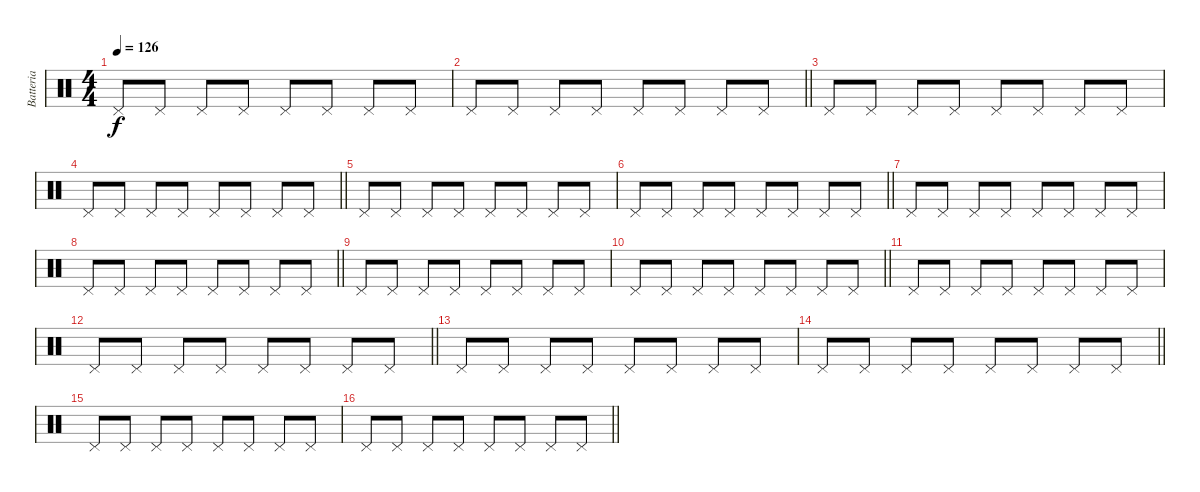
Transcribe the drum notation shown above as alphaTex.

\track ("Batteria" "Batteria") {instrument percussion}
\staff {score}
\articulation defaults
\ts (4 4)
\tempo 126
\clef neutral
\ks c "Pedal Hi-Hat (hit)".8{dy f} "Pedal Hi-Hat (hit)".8 "Pedal Hi-Hat (hit)".8 "Pedal Hi-Hat (hit)".8 "Pedal Hi-Hat (hit)".8 "Pedal Hi-Hat (hit)".8 "Pedal Hi-Hat (hit)".8 "Pedal Hi-Hat (hit)".8
|
\barLineRight lightlight "Pedal Hi-Hat (hit)".8 "Pedal Hi-Hat (hit)".8 "Pedal Hi-Hat (hit)".8 "Pedal Hi-Hat (hit)".8 "Pedal Hi-Hat (hit)".8 "Pedal Hi-Hat (hit)".8 "Pedal Hi-Hat (hit)".8 "Pedal Hi-Hat (hit)".8
|
"Pedal Hi-Hat (hit)".8 "Pedal Hi-Hat (hit)".8 "Pedal Hi-Hat (hit)".8 "Pedal Hi-Hat (hit)".8 "Pedal Hi-Hat (hit)".8 "Pedal Hi-Hat (hit)".8 "Pedal Hi-Hat (hit)".8 "Pedal Hi-Hat (hit)".8 |
\barLineRight lightlight "Pedal Hi-Hat (hit)".8 "Pedal Hi-Hat (hit)".8 "Pedal Hi-Hat (hit)".8 "Pedal Hi-Hat (hit)".8 "Pedal Hi-Hat (hit)".8 "Pedal Hi-Hat (hit)".8 "Pedal Hi-Hat (hit)".8 "Pedal Hi-Hat (hit)".8
|
"Pedal Hi-Hat (hit)".8 "Pedal Hi-Hat (hit)".8 "Pedal Hi-Hat (hit)".8 "Pedal Hi-Hat (hit)".8 "Pedal Hi-Hat (hit)".8 "Pedal Hi-Hat (hit)".8 "Pedal Hi-Hat (hit)".8 "Pedal Hi-Hat (hit)".8 |
\barLineRight lightlight "Pedal Hi-Hat (hit)".8 "Pedal Hi-Hat (hit)".8 "Pedal Hi-Hat (hit)".8 "Pedal Hi-Hat (hit)".8 "Pedal Hi-Hat (hit)".8 "Pedal Hi-Hat (hit)".8 "Pedal Hi-Hat (hit)".8 "Pedal Hi-Hat (hit)".8
|
"Pedal Hi-Hat (hit)".8 "Pedal Hi-Hat (hit)".8 "Pedal Hi-Hat (hit)".8 "Pedal Hi-Hat (hit)".8 "Pedal Hi-Hat (hit)".8 "Pedal Hi-Hat (hit)".8 "Pedal Hi-Hat (hit)".8 "Pedal Hi-Hat (hit)".8 |
\barLineRight lightlight "Pedal Hi-Hat (hit)".8 "Pedal Hi-Hat (hit)".8 "Pedal Hi-Hat (hit)".8 "Pedal Hi-Hat (hit)".8 "Pedal Hi-Hat (hit)".8 "Pedal Hi-Hat (hit)".8 "Pedal Hi-Hat (hit)".8 "Pedal Hi-Hat (hit)".8
|
"Pedal Hi-Hat (hit)".8 "Pedal Hi-Hat (hit)".8 "Pedal Hi-Hat (hit)".8 "Pedal Hi-Hat (hit)".8 "Pedal Hi-Hat (hit)".8 "Pedal Hi-Hat (hit)".8 "Pedal Hi-Hat (hit)".8 "Pedal Hi-Hat (hit)".8 |
\barLineRight lightlight "Pedal Hi-Hat (hit)".8 "Pedal Hi-Hat (hit)".8 "Pedal Hi-Hat (hit)".8 "Pedal Hi-Hat (hit)".8 "Pedal Hi-Hat (hit)".8 "Pedal Hi-Hat (hit)".8 "Pedal Hi-Hat (hit)".8 "Pedal Hi-Hat (hit)".8
|
"Pedal Hi-Hat (hit)".8 "Pedal Hi-Hat (hit)".8 "Pedal Hi-Hat (hit)".8 "Pedal Hi-Hat (hit)".8 "Pedal Hi-Hat (hit)".8 "Pedal Hi-Hat (hit)".8 "Pedal Hi-Hat (hit)".8 "Pedal Hi-Hat (hit)".8 |
\barLineRight lightlight "Pedal Hi-Hat (hit)".8 "Pedal Hi-Hat (hit)".8 "Pedal Hi-Hat (hit)".8 "Pedal Hi-Hat (hit)".8 "Pedal Hi-Hat (hit)".8 "Pedal Hi-Hat (hit)".8 "Pedal Hi-Hat (hit)".8 "Pedal Hi-Hat (hit)".8
|
"Pedal Hi-Hat (hit)".8 "Pedal Hi-Hat (hit)".8 "Pedal Hi-Hat (hit)".8 "Pedal Hi-Hat (hit)".8 "Pedal Hi-Hat (hit)".8 "Pedal Hi-Hat (hit)".8 "Pedal Hi-Hat (hit)".8 "Pedal Hi-Hat (hit)".8 |
\barLineRight lightlight "Pedal Hi-Hat (hit)".8 "Pedal Hi-Hat (hit)".8 "Pedal Hi-Hat (hit)".8 "Pedal Hi-Hat (hit)".8 "Pedal Hi-Hat (hit)".8 "Pedal Hi-Hat (hit)".8 "Pedal Hi-Hat (hit)".8 "Pedal Hi-Hat (hit)".8
|
"Pedal Hi-Hat (hit)".8 "Pedal Hi-Hat (hit)".8 "Pedal Hi-Hat (hit)".8 "Pedal Hi-Hat (hit)".8 "Pedal Hi-Hat (hit)".8 "Pedal Hi-Hat (hit)".8 "Pedal Hi-Hat (hit)".8 "Pedal Hi-Hat (hit)".8 |
\barLineRight lightlight "Pedal Hi-Hat (hit)".8 "Pedal Hi-Hat (hit)".8 "Pedal Hi-Hat (hit)".8 "Pedal Hi-Hat (hit)".8 "Pedal Hi-Hat (hit)".8 "Pedal Hi-Hat (hit)".8 "Pedal Hi-Hat (hit)".8 "Pedal Hi-Hat (hit)".8
